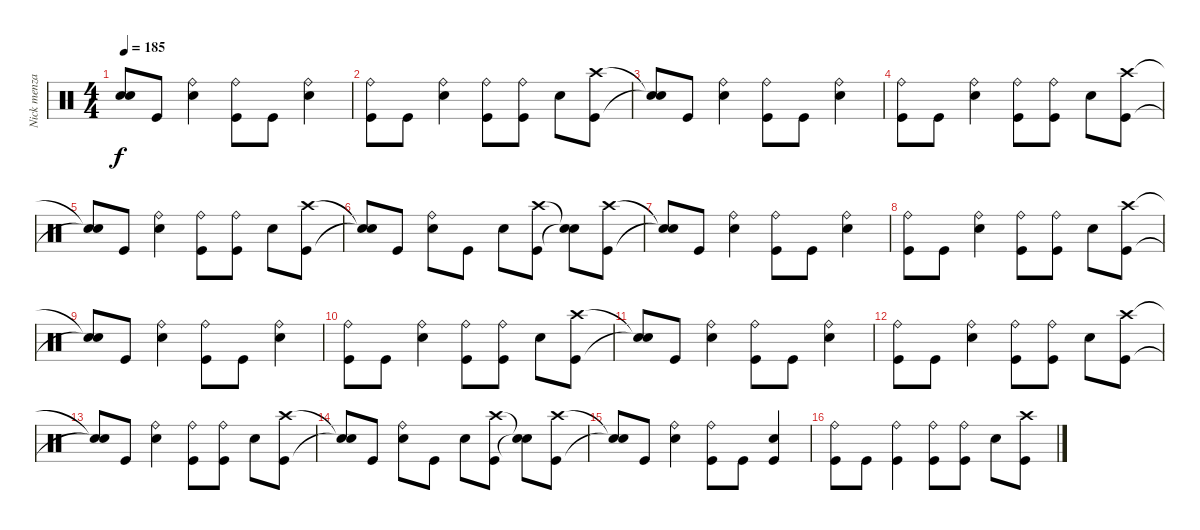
\track ("Nick menza/Jimmy de grasso" "Nick menza") {instrument percussion}
\staff {score}
\articulation defaults
\ts (4 4)
\tempo 185
\clef neutral
\ks c
("Snare (hit)"{t} "Snare (hit)"{t}).8{dy f} "Kick (hit)".8 ("Ride (bell)" "Snare (hit) 2").4 ("Kick (hit)" "Ride (bell)").8 "Kick (hit)".8 ("Ride (bell)" "Snare (hit) 2").4 |
("Kick (hit)" "Ride (bell)").8 "Kick (hit)".8 ("Ride (bell)" "Snare (hit) 2").4 ("Kick (hit)" "Ride (bell)").8 ("Kick (hit)" "Ride (bell)").8 "Snare (hit) 2".8 ("Kick (hit)" "Crash high (hit)").8 |
("Snare (hit)"{t} "Snare (hit)"{t}).8 "Kick (hit)".8 ("Ride (bell)" "Snare (hit) 2").4 ("Kick (hit)" "Ride (bell)").8 "Kick (hit)".8 ("Ride (bell)" "Snare (hit) 2").4 |
("Kick (hit)" "Ride (bell)").8 "Kick (hit)".8 ("Ride (bell)" "Snare (hit) 2").4 ("Kick (hit)" "Ride (bell)").8 ("Kick (hit)" "Ride (bell)").8 "Snare (hit) 2".8 ("Kick (hit)" "Crash high (hit)").8 |
("Snare (hit)"{t} "Snare (hit)"{t}).8 "Kick (hit)".8 ("Ride (bell)" "Snare (hit) 2").4 ("Kick (hit)" "Ride (bell)").8 ("Kick (hit)" "Ride (bell)").8 "Snare (hit) 2".8 ("Kick (hit)" "Crash high (hit)").8 |
("Snare (hit)"{t} "Snare (hit)"{t}).8 "Kick (hit)".8 ("Ride (bell)" "Snare (hit) 2").8 "Kick (hit)".8 "Snare (hit) 2".8 ("Kick (hit)" "Crash high (hit)").8 ("Snare (hit)"{t} "Snare (hit)"{t}).8 ("Kick (hit)" "Crash high (hit)").8 |
("Snare (hit)"{t} "Snare (hit)"{t}).8 "Kick (hit)".8 ("Ride (bell)" "Snare (hit) 2").4 ("Kick (hit)" "Ride (bell)").8 "Kick (hit)".8 ("Ride (bell)" "Snare (hit) 2").4 |
("Kick (hit)" "Ride (bell)").8 "Kick (hit)".8 ("Ride (bell)" "Snare (hit) 2").4 ("Kick (hit)" "Ride (bell)").8 ("Kick (hit)" "Ride (bell)").8 "Snare (hit) 2".8 ("Kick (hit)" "Crash high (hit)").8 |
("Snare (hit)"{t} "Snare (hit)"{t}).8 "Kick (hit)".8 ("Ride (bell)" "Snare (hit) 2").4 ("Kick (hit)" "Ride (bell)").8 "Kick (hit)".8 ("Ride (bell)" "Snare (hit) 2").4 |
("Kick (hit)" "Ride (bell)").8 "Kick (hit)".8 ("Ride (bell)" "Snare (hit) 2").4 ("Kick (hit)" "Ride (bell)").8 ("Kick (hit)" "Ride (bell)").8 "Snare (hit) 2".8 ("Kick (hit)" "Crash high (hit)").8 |
("Snare (hit)"{t} "Snare (hit)"{t}).8 "Kick (hit)".8 ("Ride (bell)" "Snare (hit) 2").4 ("Kick (hit)" "Ride (bell)").8 "Kick (hit)".8 ("Ride (bell)" "Snare (hit) 2").4 |
("Kick (hit)" "Ride (bell)").8 "Kick (hit)".8 ("Ride (bell)" "Snare (hit) 2").4 ("Kick (hit)" "Ride (bell)").8 ("Kick (hit)" "Ride (bell)").8 "Snare (hit) 2".8 ("Kick (hit)" "Crash high (hit)").8 |
("Snare (hit)"{t} "Snare (hit)"{t}).8 "Kick (hit)".8 ("Ride (bell)" "Snare (hit) 2").4 ("Kick (hit)" "Ride (bell)").8 ("Kick (hit)" "Ride (bell)").8 "Snare (hit) 2".8 ("Kick (hit)" "Crash high (hit)").8 |
("Snare (hit)"{t} "Snare (hit)"{t}).8 "Kick (hit)".8 ("Ride (bell)" "Snare (hit) 2").8 "Kick (hit)".8 "Snare (hit) 2".8 ("Kick (hit)" "Crash high (hit)").8 ("Snare (hit)"{t} "Snare (hit)"{t}).8 ("Kick (hit)" "Crash high (hit)").8 |
("Snare (hit)"{t} "Snare (hit)"{t}).8 "Kick (hit)".8 ("Ride (bell)" "Snare (hit) 2").4 ("Kick (hit)" "Ride (bell)").8 "Kick (hit)".8 ("Kick (hit)" "Snare (hit) 2").4 |
("Kick (hit)" "Ride (bell)").8 "Kick (hit)".8 ("Kick (hit)" "Ride (bell)").4 ("Kick (hit)" "Ride (bell)").8 ("Kick (hit)" "Ride (bell)").8 "Snare (hit) 2".8 ("Kick (hit)" "Crash high (hit)").8
